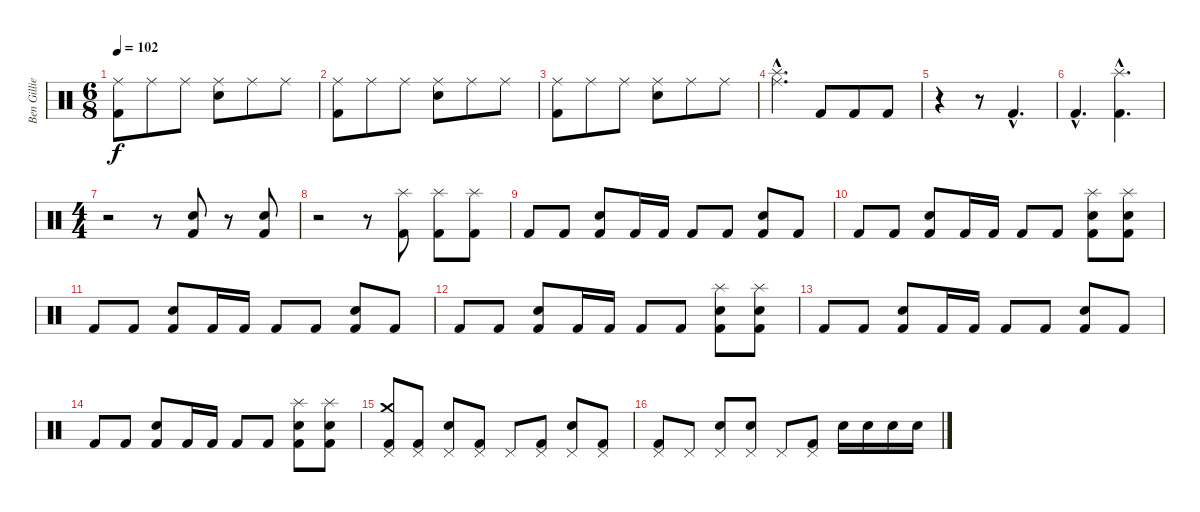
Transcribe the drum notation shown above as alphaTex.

\track ("Ben Gillies" "Ben Gillie") {instrument percussion}
\staff {score}
\articulation defaults
\ts (6 8)
\tempo 102
\clef neutral
\ks c
("Ride (middle)" "Kick (hit) 2").8{dy f} "Ride (middle)".8 "Ride (middle)".8 ("Ride (middle)" "Electric Snare (hit)").8 "Ride (middle)".8 "Ride (middle)".8 |
("Ride (middle)" "Kick (hit) 2").8 "Ride (middle)".8 "Ride (middle)".8 ("Ride (middle)" "Electric Snare (hit)").8 "Ride (middle)".8 "Ride (middle)".8 |
("Ride (middle)" "Kick (hit) 2").8 "Ride (middle)".8 "Ride (middle)".8 ("Ride (middle)" "Electric Snare (hit)").8 "Ride (middle)".8 "Ride (middle)".8 |
("Splash (hit)"{hac} "Ride (middle)"{hac}).4{d} "Kick (hit) 2".8 "Kick (hit) 2".8 "Kick (hit) 2".8 |
r.4 r.8 "Kick (hit) 2"{hac}.4{d} |
"Kick (hit) 2"{hac}.4{d} ("Splash (hit)"{hac} "Kick (hit) 2"{hac}).4{d} |
\ts (4 4)
r.2 r.8 ("Electric Snare (hit)" "Kick (hit) 2").8 r.8 ("Electric Snare (hit)" "Kick (hit) 2").8 |
r.2 r.8 ("Splash (hit)" "Kick (hit) 2").8 ("Splash (hit)" "Kick (hit) 2").8 ("Splash (hit)" "Kick (hit) 2").8 |
"Kick (hit) 2".8 "Kick (hit) 2".8 ("Electric Snare (hit)" "Kick (hit) 2").8 "Kick (hit) 2".16 "Kick (hit) 2".16 "Kick (hit) 2".8 "Kick (hit) 2".8 ("Electric Snare (hit)" "Kick (hit) 2").8 "Kick (hit) 2".8 |
"Kick (hit) 2".8 "Kick (hit) 2".8 ("Electric Snare (hit)" "Kick (hit) 2").8 "Kick (hit) 2".16 "Kick (hit) 2".16 "Kick (hit) 2".8 "Kick (hit) 2".8 ("Splash (hit)" "Electric Snare (hit)" "Kick (hit) 2").8 ("Splash (hit)" "Electric Snare (hit)" "Kick (hit) 2").8 |
"Kick (hit) 2".8 "Kick (hit) 2".8 ("Electric Snare (hit)" "Kick (hit) 2").8 "Kick (hit) 2".16 "Kick (hit) 2".16 "Kick (hit) 2".8 "Kick (hit) 2".8 ("Electric Snare (hit)" "Kick (hit) 2").8 "Kick (hit) 2".8 |
"Kick (hit) 2".8 "Kick (hit) 2".8 ("Electric Snare (hit)" "Kick (hit) 2").8 "Kick (hit) 2".16 "Kick (hit) 2".16 "Kick (hit) 2".8 "Kick (hit) 2".8 ("Splash (hit)" "Electric Snare (hit)" "Kick (hit) 2").8 ("Splash (hit)" "Electric Snare (hit)" "Kick (hit) 2").8 |
"Kick (hit) 2".8 "Kick (hit) 2".8 ("Electric Snare (hit)" "Kick (hit) 2").8 "Kick (hit) 2".16 "Kick (hit) 2".16 "Kick (hit) 2".8 "Kick (hit) 2".8 ("Electric Snare (hit)" "Kick (hit) 2").8 "Kick (hit) 2".8 |
"Kick (hit) 2".8 "Kick (hit) 2".8 ("Electric Snare (hit)" "Kick (hit) 2").8 "Kick (hit) 2".16 "Kick (hit) 2".16 "Kick (hit) 2".8 "Kick (hit) 2".8 ("Splash (hit)" "Electric Snare (hit)" "Kick (hit) 2").8 ("Splash (hit)" "Electric Snare (hit)" "Kick (hit) 2").8 |
("Crash medium (hit)" "Pedal Hi-Hat (hit)" "Kick (hit) 2").8 ("Pedal Hi-Hat (hit)" "Kick (hit) 2").8 ("Pedal Hi-Hat (hit)" "Electric Snare (hit)").8 ("Pedal Hi-Hat (hit)" "Kick (hit) 2").8 "Pedal Hi-Hat (hit)".8 ("Pedal Hi-Hat (hit)" "Kick (hit) 2").8 ("Pedal Hi-Hat (hit)" "Electric Snare (hit)").8 ("Pedal Hi-Hat (hit)" "Kick (hit) 2").8 |
("Pedal Hi-Hat (hit)" "Kick (hit) 2").8 "Pedal Hi-Hat (hit)".8 ("Pedal Hi-Hat (hit)" "Electric Snare (hit)").8 ("Pedal Hi-Hat (hit)" "Electric Snare (hit)").8 "Pedal Hi-Hat (hit)".8 ("Pedal Hi-Hat (hit)" "Kick (hit) 2").8 "Electric Snare (hit)".16 "Electric Snare (hit)".16 "Electric Snare (hit)".16 "Electric Snare (hit)".16
